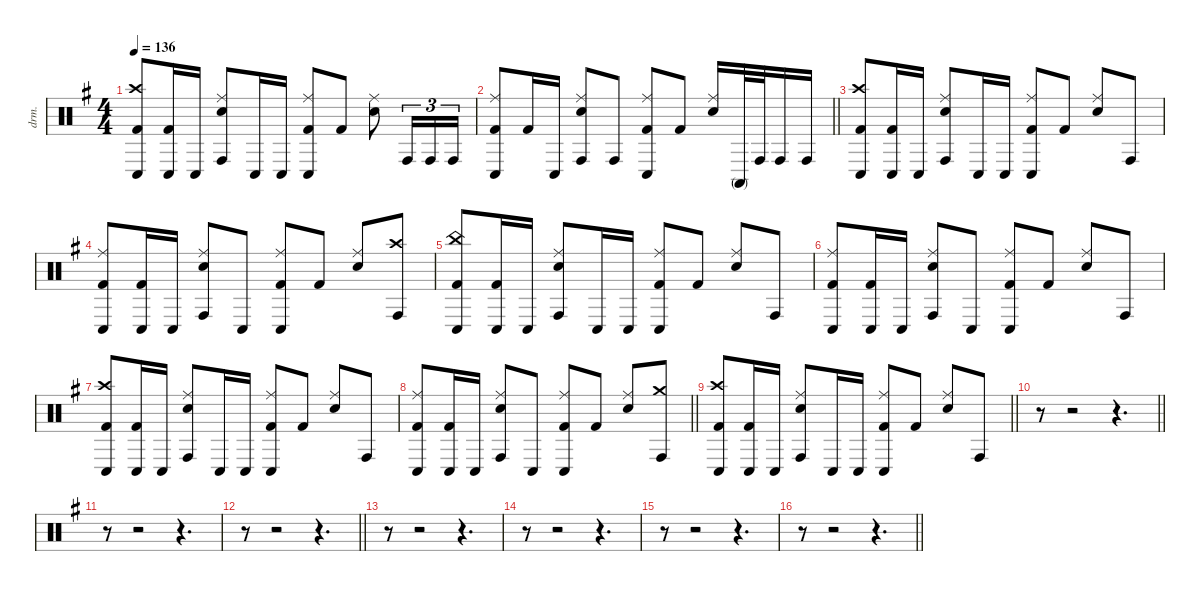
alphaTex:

\defaultSystemsLayout 4
\hideDynamics
\bracketExtendMode nobrackets
\otherSystemsTrackNameOrientation horizontal
\track ("Batterie" "drm.") {instrument percussion}
\staff {score}
\articulation defaults
\ts (4 4)
\tempo 136
\clef neutral
\ks g
("Crash high (hit)"{acc forcenatural} "Conga low (hit)"{acc forcenatural} "Kick (hit) 2"{acc forcenatural}).8{dy f beam Up} ("Conga low (hit)"{acc forcenatural} "Kick (hit) 2"{acc forcenatural}).16{beam Up} "Conga low (hit)"{acc forcenatural}.16{beam Up} ("Ride (middle)"{acc forcenatural} "Conga high (hit)"{acc forcenatural} "Snare (hit) 2"{acc forcenatural}).8{beam Up} "Conga low (hit)"{acc forcenatural}.16{beam Up} "Conga low (hit)"{acc forcenatural}.16{beam Up} ("Ride (middle)"{acc forcenatural} "Conga low (hit)"{acc forcenatural} "Kick (hit) 2"{acc forcenatural}).8{beam Up} "Kick (hit) 2"{acc forcenatural}.8{beam Up} ("Ride (middle)"{acc forcenatural} "Snare (hit) 2"{acc forcenatural}).8{beam Down} "Conga high (hit)"{acc forcenatural}.16{tu (3 2) beam Up} "Conga high (hit)"{acc forcenatural}.16{tu (3 2) beam Up} "Conga high (hit)"{acc forcenatural}.16{tu (3 2) beam Up} |
\barLineRight lightlight
("Ride (middle)"{acc forcenatural} "Conga low (hit)"{acc forcenatural} "Kick (hit) 2"{acc forcenatural}).8{beam Up} "Kick (hit) 2"{acc forcenatural}.16{beam Up} "Conga low (hit)"{acc forcenatural}.16{beam Up} ("Ride (middle)"{acc forcenatural} "Conga high (hit)"{acc forcenatural} "Snare (hit) 2"{acc forcenatural}).8{beam Up} "Conga high (hit)"{acc forcenatural}.8{beam Up} ("Ride (middle)"{acc forcenatural} "Conga low (hit)"{acc forcenatural} "Kick (hit) 2"{acc forcenatural}).8{beam Up} "Kick (hit) 2"{acc forcenatural}.8{beam Up} ("Ride (middle)"{acc forcenatural} "Snare (hit) 2"{acc forcenatural}).16{beam Up} "Conga high (mute)"{acc forcenatural}.32{beam Up} "Conga high (hit)"{acc forcenatural}.32{beam Up} "Conga high (hit)"{acc forcenatural}.16{beam Up} "Conga high (hit)"{acc forcenatural}.16{beam Up} |
("Crash high (hit)"{acc forcenatural} "Conga low (hit)"{acc forcenatural} "Kick (hit) 2"{acc forcenatural}).8{beam Up} ("Conga low (hit)"{acc forcenatural} "Kick (hit) 2"{acc forcenatural}).16{beam Up} "Conga low (hit)"{acc forcenatural}.16{beam Up} ("Ride (middle)"{acc forcenatural} "Conga high (hit)"{acc forcenatural} "Snare (hit) 2"{acc forcenatural}).8{beam Up} "Conga low (hit)"{acc forcenatural}.16{beam Up} "Conga low (hit)"{acc forcenatural}.16{beam Up} ("Ride (middle)"{acc forcenatural} "Conga low (hit)"{acc forcenatural} "Kick (hit) 2"{acc forcenatural}).8{beam Up} "Kick (hit) 2"{acc forcenatural}.8{beam Up} ("Ride (middle)"{acc forcenatural} "Snare (hit) 2"{acc forcenatural}).8{beam Up} "Conga high (hit)"{acc forcenatural}.8{beam Up} |
("Ride (middle)"{acc forcenatural} "Conga low (hit)"{acc forcenatural} "Kick (hit) 2"{acc forcenatural}).8{beam Up} ("Conga low (hit)"{acc forcenatural} "Kick (hit) 2"{acc forcenatural}).16{beam Up} "Conga low (hit)"{acc forcenatural}.16{beam Up} ("Ride (middle)"{acc forcenatural} "Conga high (hit)"{acc forcenatural} "Snare (hit) 2"{acc forcenatural}).8{beam Up} "Conga low (hit)"{acc forcenatural}.8{beam Up} ("Ride (middle)"{acc forcenatural} "Conga low (hit)"{acc forcenatural} "Kick (hit) 2"{acc forcenatural}).8{beam Up} "Kick (hit) 2"{acc forcenatural}.8{beam Up} ("Ride (middle)"{acc forcenatural} "Snare (hit) 2"{acc forcenatural}).8{beam Up} ("Crash high (hit)"{acc forcenatural} "Conga high (hit)"{acc forcenatural}).8{beam Up} |
("China (hit)"{acc forcenatural} "Conga low (hit)"{acc forcenatural} "Kick (hit) 2"{acc forcenatural}).8{beam Up} ("Conga low (hit)"{acc forcenatural} "Kick (hit) 2"{acc forcenatural}).16{beam Up} "Conga low (hit)"{acc forcenatural}.16{beam Up} ("Ride (middle)"{acc forcenatural} "Conga high (hit)"{acc forcenatural} "Snare (hit) 2"{acc forcenatural}).8{beam Up} "Conga low (hit)"{acc forcenatural}.16{beam Up} "Conga low (hit)"{acc forcenatural}.16{beam Up} ("Ride (middle)"{acc forcenatural} "Conga low (hit)"{acc forcenatural} "Kick (hit) 2"{acc forcenatural}).8{beam Up} "Kick (hit) 2"{acc forcenatural}.8{beam Up} ("Ride (middle)"{acc forcenatural} "Snare (hit) 2"{acc forcenatural}).8{beam Up} "Conga high (hit)"{acc forcenatural}.8{beam Up} |
("Ride (middle)"{acc forcenatural} "Conga low (hit)"{acc forcenatural} "Kick (hit) 2"{acc forcenatural}).8{beam Up} ("Conga low (hit)"{acc forcenatural} "Kick (hit) 2"{acc forcenatural}).16{beam Up} "Conga low (hit)"{acc forcenatural}.16{beam Up} ("Ride (middle)"{acc forcenatural} "Conga high (hit)"{acc forcenatural} "Snare (hit) 2"{acc forcenatural}).8{beam Up} "Conga low (hit)"{acc forcenatural}.8{beam Up} ("Ride (middle)"{acc forcenatural} "Conga low (hit)"{acc forcenatural} "Kick (hit) 2"{acc forcenatural}).8{beam Up} "Kick (hit) 2"{acc forcenatural}.8{beam Up} ("Ride (middle)"{acc forcenatural} "Snare (hit) 2"{acc forcenatural}).8{beam Up} "Conga high (hit)"{acc forcenatural}.8{beam Up} |
("Crash high (hit)"{acc forcenatural} "Conga low (hit)"{acc forcenatural} "Kick (hit) 2"{acc forcenatural}).8{beam Up} ("Conga low (hit)"{acc forcenatural} "Kick (hit) 2"{acc forcenatural}).16{beam Up} "Conga low (hit)"{acc forcenatural}.16{beam Up} ("Ride (middle)"{acc forcenatural} "Conga high (hit)"{acc forcenatural} "Snare (hit) 2"{acc forcenatural}).8{beam Up} "Conga low (hit)"{acc forcenatural}.16{beam Up} "Conga low (hit)"{acc forcenatural}.16{beam Up} ("Ride (middle)"{acc forcenatural} "Conga low (hit)"{acc forcenatural} "Kick (hit) 2"{acc forcenatural}).8{beam Up} "Kick (hit) 2"{acc forcenatural}.8{beam Up} ("Ride (middle)"{acc forcenatural} "Snare (hit) 2"{acc forcenatural}).8{beam Up} "Conga high (hit)"{acc forcenatural}.8{beam Up} |
\barLineRight lightlight
("Ride (middle)"{acc forcenatural} "Conga low (hit)"{acc forcenatural} "Kick (hit) 2"{acc forcenatural}).8{beam Up} ("Conga low (hit)"{acc forcenatural} "Kick (hit) 2"{acc forcenatural}).16{beam Up} "Conga low (hit)"{acc forcenatural}.16{beam Up} ("Ride (middle)"{acc forcenatural} "Conga high (hit)"{acc forcenatural} "Snare (hit) 2"{acc forcenatural}).8{beam Up} "Conga low (hit)"{acc forcenatural}.8{beam Up} ("Ride (middle)"{acc forcenatural} "Conga low (hit)"{acc forcenatural} "Kick (hit) 2"{acc forcenatural}).8{beam Up} "Kick (hit) 2"{acc forcenatural}.8{beam Up} ("Ride (middle)"{acc forcenatural} "Snare (hit) 2"{acc forcenatural}).8{beam Up} ("Crash medium (hit)"{acc forcenatural} "Conga high (hit)"{acc forcenatural}).8{beam Up} |
\barLineRight lightlight
("Crash high (hit)"{acc forcenatural} "Conga low (hit)"{acc forcenatural} "Kick (hit) 2"{acc forcenatural}).8{beam Up} ("Conga low (hit)"{acc forcenatural} "Kick (hit) 2"{acc forcenatural}).16{beam Up} "Conga low (hit)"{acc forcenatural}.16{beam Up} ("Ride (middle)"{acc forcenatural} "Conga high (hit)"{acc forcenatural} "Snare (hit) 2"{acc forcenatural}).8{beam Up} "Conga low (hit)"{acc forcenatural}.16{beam Up} "Conga low (hit)"{acc forcenatural}.16{beam Up} ("Ride (middle)"{acc forcenatural} "Conga low (hit)"{acc forcenatural} "Kick (hit) 2"{acc forcenatural}).8{beam Up} "Kick (hit) 2"{acc forcenatural}.8{beam Up} ("Ride (middle)"{acc forcenatural} "Snare (hit) 2"{acc forcenatural}).8{beam Up} "Conga high (hit)"{acc forcenatural}.8{beam Up} |
\barLineRight lightlight
r.8{beam Down} r.2{beam Down} r.4{d beam Down} |
r.8{beam Down} r.2{beam Down} r.4{d beam Down} |
\barLineRight lightlight
r.8{beam Down} r.2{beam Down} r.4{d beam Down} |
r.8{beam Down} r.2{beam Down} r.4{d beam Down} |
r.8{beam Down} r.2{beam Down} r.4{d beam Down} |
r.8{beam Down} r.2{beam Down} r.4{d beam Down} |
\barLineRight lightlight
r.8{beam Down} r.2{beam Down} r.4{d beam Down}
